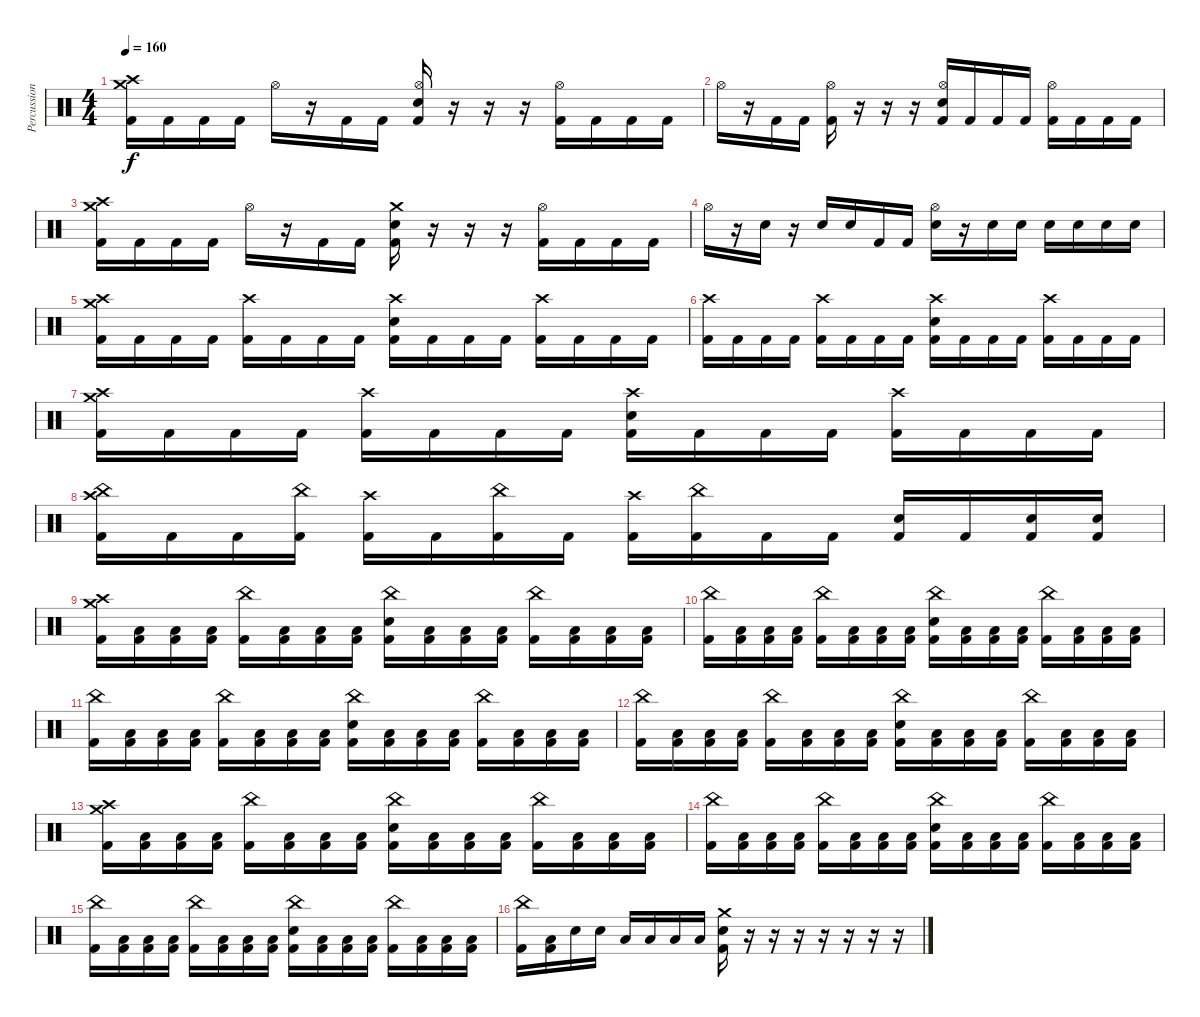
\track ("Percussion" "Percussion") {instrument percussion}
\staff {score}
\articulation defaults
\ts (4 4)
\tempo 160
\clef neutral
\ks c
("Crash medium (hit)" "Crash high (hit)" "Kick (hit) 2").16{dy f} "Kick (hit) 2".16 "Kick (hit) 2".16 "Kick (hit) 2".16 "Hi-Hat (open)".16 r.16 "Kick (hit) 2".16 "Kick (hit) 2".16 ("Hi-Hat (open)" "Electric Snare (hit)" "Kick (hit) 2").16 r.16 r.16 r.16 ("Hi-Hat (open)" "Kick (hit) 2").16 "Kick (hit) 2".16 "Kick (hit) 2".16 "Kick (hit) 2".16 |
"Hi-Hat (open)".16 r.16 "Kick (hit) 2".16 "Kick (hit) 2".16 ("Hi-Hat (open)" "Kick (hit) 2").16 r.16 r.16 r.16 ("Hi-Hat (open)" "Electric Snare (hit)" "Kick (hit) 2").16 "Kick (hit) 2".16 "Kick (hit) 2".16 "Kick (hit) 2".16 ("Hi-Hat (open)" "Kick (hit) 2").16 "Kick (hit) 2".16 "Kick (hit) 2".16 "Kick (hit) 2".16 |
("Crash medium (hit)" "Crash high (hit)" "Kick (hit) 2").16 "Kick (hit) 2".16 "Kick (hit) 2".16 "Kick (hit) 2".16 "Hi-Hat (open)".16 r.16 "Kick (hit) 2".16 "Kick (hit) 2".16 ("Crash medium (hit)" "Electric Snare (hit)" "Kick (hit) 2").16 r.16 r.16 r.16 ("Hi-Hat (open)" "Kick (hit) 2").16 "Kick (hit) 2".16 "Kick (hit) 2".16 "Kick (hit) 2".16 |
"Hi-Hat (open)".16 r.16 "Electric Snare (hit)".16 r.16 "Electric Snare (hit)".16 "Electric Snare (hit)".16 "Kick (hit) 2".16 "Kick (hit) 2".16 ("Hi-Hat (open)" "Electric Snare (hit)").16 r.16 "Electric Snare (hit)".16 "Electric Snare (hit)".16 "Electric Snare (hit)".16 "Electric Snare (hit)".16 "Electric Snare (hit)".16 "Electric Snare (hit)".16 |
("Crash medium (hit)" "Crash high (hit)" "Kick (hit) 2").16 "Kick (hit) 2".16 "Kick (hit) 2".16 "Kick (hit) 2".16 ("Crash high (hit)" "Kick (hit) 2").16 "Kick (hit) 2".16 "Kick (hit) 2".16 "Kick (hit) 2".16 ("Crash high (hit)" "Electric Snare (hit)" "Kick (hit) 2").16 "Kick (hit) 2".16 "Kick (hit) 2".16 "Kick (hit) 2".16 ("Crash high (hit)" "Kick (hit) 2").16 "Kick (hit) 2".16 "Kick (hit) 2".16 "Kick (hit) 2".16 |
("Crash high (hit)" "Kick (hit) 2").16 "Kick (hit) 2".16 "Kick (hit) 2".16 "Kick (hit) 2".16 ("Crash high (hit)" "Kick (hit) 2").16 "Kick (hit) 2".16 "Kick (hit) 2".16 "Kick (hit) 2".16 ("Crash high (hit)" "Electric Snare (hit)" "Kick (hit) 2").16 "Kick (hit) 2".16 "Kick (hit) 2".16 "Kick (hit) 2".16 ("Crash high (hit)" "Kick (hit) 2").16 "Kick (hit) 2".16 "Kick (hit) 2".16 "Kick (hit) 2".16 |
("Crash medium (hit)" "Crash high (hit)" "Kick (hit) 2").16 "Kick (hit) 2".16 "Kick (hit) 2".16 "Kick (hit) 2".16 ("Crash high (hit)" "Kick (hit) 2").16 "Kick (hit) 2".16 "Kick (hit) 2".16 "Kick (hit) 2".16 ("Crash high (hit)" "Electric Snare (hit)" "Kick (hit) 2").16 "Kick (hit) 2".16 "Kick (hit) 2".16 "Kick (hit) 2".16 ("Crash high (hit)" "Kick (hit) 2").16 "Kick (hit) 2".16 "Kick (hit) 2".16 "Kick (hit) 2".16 |
("China (hit)" "Crash high (hit)" "Kick (hit) 2").16 "Kick (hit) 2".16 "Kick (hit) 2".16 ("China (hit)" "Kick (hit) 2").16 ("Crash high (hit)" "Kick (hit) 2").16 "Kick (hit) 2".16 ("China (hit)" "Kick (hit) 2").16 "Kick (hit) 2".16 ("Crash high (hit)" "Kick (hit) 2").16 ("China (hit)" "Kick (hit) 2").16 "Kick (hit) 2".16 "Kick (hit) 2".16 ("Electric Snare (hit)" "Kick (hit) 2").16 "Kick (hit) 2".16 ("Electric Snare (hit)" "Kick (hit) 2").16 ("Electric Snare (hit)" "Kick (hit) 2").16 |
("Crash medium (hit)" "Crash high (hit)" "Kick (hit) 2").16 ("Low Floor Tom (hit)" "Kick (hit) 2").16 ("Low Floor Tom (hit)" "Kick (hit) 2").16 ("Low Floor Tom (hit)" "Kick (hit) 2").16 ("China (hit)" "Kick (hit) 2").16 ("Low Floor Tom (hit)" "Kick (hit) 2").16 ("Low Floor Tom (hit)" "Kick (hit) 2").16 ("Low Floor Tom (hit)" "Kick (hit) 2").16 ("China (hit)" "Electric Snare (hit)" "Kick (hit) 2").16 ("Low Floor Tom (hit)" "Kick (hit) 2").16 ("Low Floor Tom (hit)" "Kick (hit) 2").16 ("Low Floor Tom (hit)" "Kick (hit) 2").16 ("China (hit)" "Kick (hit) 2").16 ("Low Floor Tom (hit)" "Kick (hit) 2").16 ("Low Floor Tom (hit)" "Kick (hit) 2").16 ("Low Floor Tom (hit)" "Kick (hit) 2").16 |
("China (hit)" "Kick (hit) 2").16 ("Low Floor Tom (hit)" "Kick (hit) 2").16 ("Low Floor Tom (hit)" "Kick (hit) 2").16 ("Low Floor Tom (hit)" "Kick (hit) 2").16 ("China (hit)" "Kick (hit) 2").16 ("Low Floor Tom (hit)" "Kick (hit) 2").16 ("Low Floor Tom (hit)" "Kick (hit) 2").16 ("Low Floor Tom (hit)" "Kick (hit) 2").16 ("China (hit)" "Electric Snare (hit)" "Kick (hit) 2").16 ("Low Floor Tom (hit)" "Kick (hit) 2").16 ("Low Floor Tom (hit)" "Kick (hit) 2").16 ("Low Floor Tom (hit)" "Kick (hit) 2").16 ("China (hit)" "Kick (hit) 2").16 ("Low Floor Tom (hit)" "Kick (hit) 2").16 ("Low Floor Tom (hit)" "Kick (hit) 2").16 ("Low Floor Tom (hit)" "Kick (hit) 2").16 |
("China (hit)" "Kick (hit) 2").16 ("Low Floor Tom (hit)" "Kick (hit) 2").16 ("Low Floor Tom (hit)" "Kick (hit) 2").16 ("Low Floor Tom (hit)" "Kick (hit) 2").16 ("China (hit)" "Kick (hit) 2").16 ("Low Floor Tom (hit)" "Kick (hit) 2").16 ("Low Floor Tom (hit)" "Kick (hit) 2").16 ("Low Floor Tom (hit)" "Kick (hit) 2").16 ("China (hit)" "Electric Snare (hit)" "Kick (hit) 2").16 ("Low Floor Tom (hit)" "Kick (hit) 2").16 ("Low Floor Tom (hit)" "Kick (hit) 2").16 ("Low Floor Tom (hit)" "Kick (hit) 2").16 ("China (hit)" "Kick (hit) 2").16 ("Low Floor Tom (hit)" "Kick (hit) 2").16 ("Low Floor Tom (hit)" "Kick (hit) 2").16 ("Low Floor Tom (hit)" "Kick (hit) 2").16 |
("China (hit)" "Kick (hit) 2").16 ("Low Floor Tom (hit)" "Kick (hit) 2").16 ("Low Floor Tom (hit)" "Kick (hit) 2").16 ("Low Floor Tom (hit)" "Kick (hit) 2").16 ("China (hit)" "Kick (hit) 2").16 ("Low Floor Tom (hit)" "Kick (hit) 2").16 ("Low Floor Tom (hit)" "Kick (hit) 2").16 ("Low Floor Tom (hit)" "Kick (hit) 2").16 ("China (hit)" "Electric Snare (hit)" "Kick (hit) 2").16 ("Low Floor Tom (hit)" "Kick (hit) 2").16 ("Low Floor Tom (hit)" "Kick (hit) 2").16 ("Low Floor Tom (hit)" "Kick (hit) 2").16 ("China (hit)" "Kick (hit) 2").16 ("Low Floor Tom (hit)" "Kick (hit) 2").16 ("Low Floor Tom (hit)" "Kick (hit) 2").16 ("Low Floor Tom (hit)" "Kick (hit) 2").16 |
("Crash medium (hit)" "Crash high (hit)" "Kick (hit) 2").16 ("Low Floor Tom (hit)" "Kick (hit) 2").16 ("Low Floor Tom (hit)" "Kick (hit) 2").16 ("Low Floor Tom (hit)" "Kick (hit) 2").16 ("China (hit)" "Kick (hit) 2").16 ("Low Floor Tom (hit)" "Kick (hit) 2").16 ("Low Floor Tom (hit)" "Kick (hit) 2").16 ("Low Floor Tom (hit)" "Kick (hit) 2").16 ("China (hit)" "Electric Snare (hit)" "Kick (hit) 2").16 ("Low Floor Tom (hit)" "Kick (hit) 2").16 ("Low Floor Tom (hit)" "Kick (hit) 2").16 ("Low Floor Tom (hit)" "Kick (hit) 2").16 ("China (hit)" "Kick (hit) 2").16 ("Low Floor Tom (hit)" "Kick (hit) 2").16 ("Low Floor Tom (hit)" "Kick (hit) 2").16 ("Low Floor Tom (hit)" "Kick (hit) 2").16 |
("China (hit)" "Kick (hit) 2").16 ("Low Floor Tom (hit)" "Kick (hit) 2").16 ("Low Floor Tom (hit)" "Kick (hit) 2").16 ("Low Floor Tom (hit)" "Kick (hit) 2").16 ("China (hit)" "Kick (hit) 2").16 ("Low Floor Tom (hit)" "Kick (hit) 2").16 ("Low Floor Tom (hit)" "Kick (hit) 2").16 ("Low Floor Tom (hit)" "Kick (hit) 2").16 ("China (hit)" "Electric Snare (hit)" "Kick (hit) 2").16 ("Low Floor Tom (hit)" "Kick (hit) 2").16 ("Low Floor Tom (hit)" "Kick (hit) 2").16 ("Low Floor Tom (hit)" "Kick (hit) 2").16 ("China (hit)" "Kick (hit) 2").16 ("Low Floor Tom (hit)" "Kick (hit) 2").16 ("Low Floor Tom (hit)" "Kick (hit) 2").16 ("Low Floor Tom (hit)" "Kick (hit) 2").16 |
("China (hit)" "Kick (hit) 2").16 ("Low Floor Tom (hit)" "Kick (hit) 2").16 ("Low Floor Tom (hit)" "Kick (hit) 2").16 ("Low Floor Tom (hit)" "Kick (hit) 2").16 ("China (hit)" "Kick (hit) 2").16 ("Low Floor Tom (hit)" "Kick (hit) 2").16 ("Low Floor Tom (hit)" "Kick (hit) 2").16 ("Low Floor Tom (hit)" "Kick (hit) 2").16 ("China (hit)" "Electric Snare (hit)" "Kick (hit) 2").16 ("Low Floor Tom (hit)" "Kick (hit) 2").16 ("Low Floor Tom (hit)" "Kick (hit) 2").16 ("Low Floor Tom (hit)" "Kick (hit) 2").16 ("China (hit)" "Kick (hit) 2").16 ("Low Floor Tom (hit)" "Kick (hit) 2").16 ("Low Floor Tom (hit)" "Kick (hit) 2").16 ("Low Floor Tom (hit)" "Kick (hit) 2").16 |
("China (hit)" "Kick (hit) 2").16 ("Low Floor Tom (hit)" "Kick (hit) 2").16 "Electric Snare (hit)".16 "Electric Snare (hit)".16 "Low Tom (hit)".16 "Low Tom (hit)".16 "Low Floor Tom (hit)".16 "Low Floor Tom (hit)".16 ("Crash medium (hit)" "Electric Snare (hit)" "Kick (hit) 2").16 r.16 r.16 r.16 r.16 r.16 r.16 r.16
